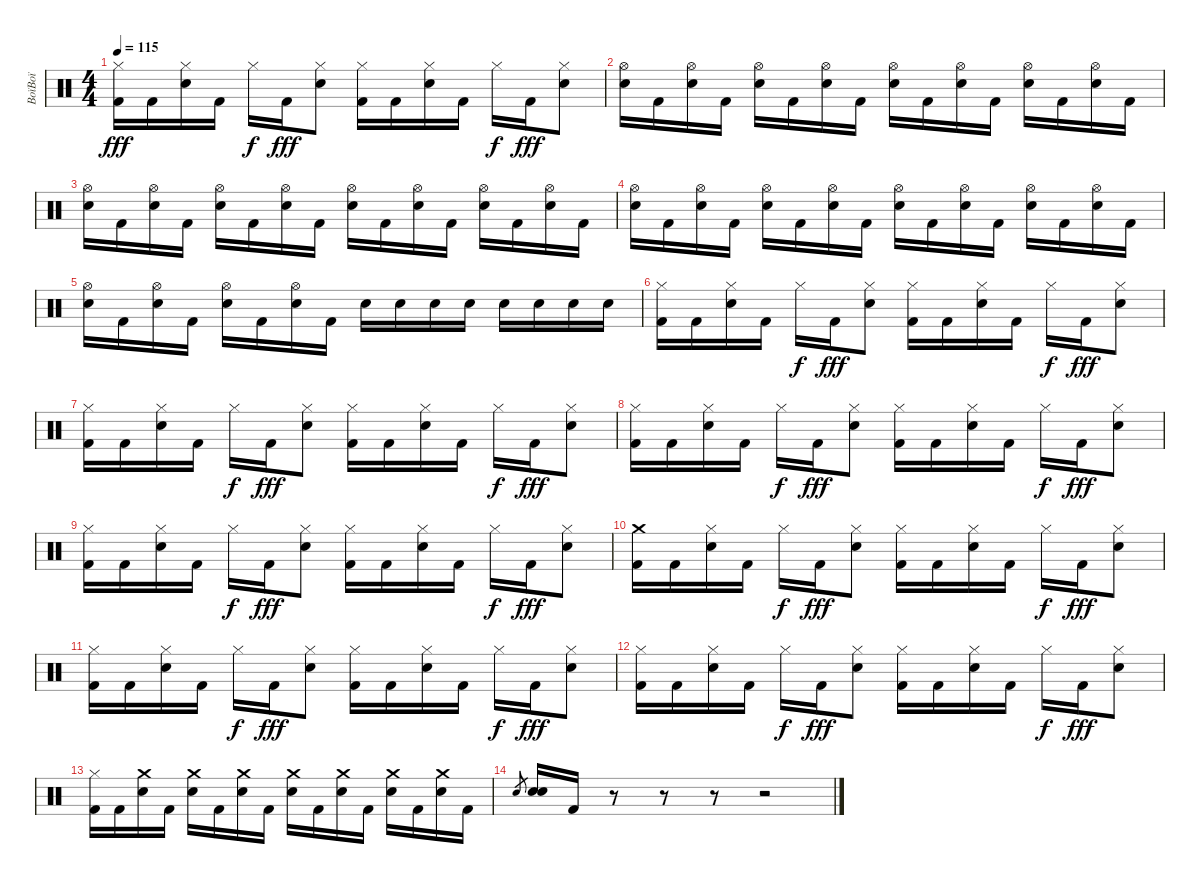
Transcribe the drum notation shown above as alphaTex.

\track ("BoïBoï" "BoïBoï") {instrument percussion}
\staff {score}
\articulation defaults
\ts (4 4)
\tempo 115
\clef neutral
\ks c
("Hi-Hat (closed)" "Kick (hit) 2").16{dy fff} "Kick (hit) 2".16 ("Hi-Hat (closed)" "Electric Snare (hit)").16 "Kick (hit) 2".16 "Hi-Hat (closed)".16{dy f} "Kick (hit) 2".16{dy fff} ("Hi-Hat (closed)" "Electric Snare (hit)").8 ("Hi-Hat (closed)" "Kick (hit) 2").16 "Kick (hit) 2".16 ("Hi-Hat (closed)" "Electric Snare (hit)").16 "Kick (hit) 2".16 "Hi-Hat (closed)".16{dy f} "Kick (hit) 2".16{dy fff} ("Hi-Hat (closed)" "Electric Snare (hit)").8 |
("Hi-Hat (open)" "Electric Snare (hit)").16 "Kick (hit) 2".16 ("Hi-Hat (open)" "Electric Snare (hit)").16 "Kick (hit) 2".16 ("Hi-Hat (open)" "Electric Snare (hit)").16 "Kick (hit) 2".16 ("Hi-Hat (open)" "Electric Snare (hit)").16 "Kick (hit) 2".16 ("Hi-Hat (open)" "Electric Snare (hit)").16 "Kick (hit) 2".16 ("Hi-Hat (open)" "Electric Snare (hit)").16 "Kick (hit) 2".16 ("Hi-Hat (open)" "Electric Snare (hit)").16 "Kick (hit) 2".16 ("Hi-Hat (open)" "Electric Snare (hit)").16 "Kick (hit) 2".16 |
("Hi-Hat (open)" "Electric Snare (hit)").16 "Kick (hit) 2".16 ("Hi-Hat (open)" "Electric Snare (hit)").16 "Kick (hit) 2".16 ("Hi-Hat (open)" "Electric Snare (hit)").16 "Kick (hit) 2".16 ("Hi-Hat (open)" "Electric Snare (hit)").16 "Kick (hit) 2".16 ("Hi-Hat (open)" "Electric Snare (hit)").16 "Kick (hit) 2".16 ("Hi-Hat (open)" "Electric Snare (hit)").16 "Kick (hit) 2".16 ("Hi-Hat (open)" "Electric Snare (hit)").16 "Kick (hit) 2".16 ("Hi-Hat (open)" "Electric Snare (hit)").16 "Kick (hit) 2".16 |
("Hi-Hat (open)" "Electric Snare (hit)").16 "Kick (hit) 2".16 ("Hi-Hat (open)" "Electric Snare (hit)").16 "Kick (hit) 2".16 ("Hi-Hat (open)" "Electric Snare (hit)").16 "Kick (hit) 2".16 ("Hi-Hat (open)" "Electric Snare (hit)").16 "Kick (hit) 2".16 ("Hi-Hat (open)" "Electric Snare (hit)").16 "Kick (hit) 2".16 ("Hi-Hat (open)" "Electric Snare (hit)").16 "Kick (hit) 2".16 ("Hi-Hat (open)" "Electric Snare (hit)").16 "Kick (hit) 2".16 ("Hi-Hat (open)" "Electric Snare (hit)").16 "Kick (hit) 2".16 |
("Hi-Hat (open)" "Electric Snare (hit)").16 "Kick (hit) 2".16 ("Hi-Hat (open)" "Electric Snare (hit)").16 "Kick (hit) 2".16 ("Hi-Hat (open)" "Electric Snare (hit)").16 "Kick (hit) 2".16 ("Hi-Hat (open)" "Electric Snare (hit)").16 "Kick (hit) 2".16 "Electric Snare (hit)".16 "Electric Snare (hit)".16 "Electric Snare (hit)".16 "Electric Snare (hit)".16 "Electric Snare (hit)".16 "Electric Snare (hit)".16 "Electric Snare (hit)".16 "Electric Snare (hit)".16 |
("Hi-Hat (closed)" "Kick (hit) 2").16 "Kick (hit) 2".16 ("Hi-Hat (closed)" "Electric Snare (hit)").16 "Kick (hit) 2".16 "Hi-Hat (closed)".16{dy f} "Kick (hit) 2".16{dy fff} ("Hi-Hat (closed)" "Electric Snare (hit)").8 ("Hi-Hat (closed)" "Kick (hit) 2").16 "Kick (hit) 2".16 ("Hi-Hat (closed)" "Electric Snare (hit)").16 "Kick (hit) 2".16 "Hi-Hat (closed)".16{dy f} "Kick (hit) 2".16{dy fff} ("Hi-Hat (closed)" "Electric Snare (hit)").8 |
("Hi-Hat (closed)" "Kick (hit) 2").16 "Kick (hit) 2".16 ("Hi-Hat (closed)" "Electric Snare (hit)").16 "Kick (hit) 2".16 "Hi-Hat (closed)".16{dy f} "Kick (hit) 2".16{dy fff} ("Hi-Hat (closed)" "Electric Snare (hit)").8 ("Hi-Hat (closed)" "Kick (hit) 2").16 "Kick (hit) 2".16 ("Hi-Hat (closed)" "Electric Snare (hit)").16 "Kick (hit) 2".16 "Hi-Hat (closed)".16{dy f} "Kick (hit) 2".16{dy fff} ("Hi-Hat (closed)" "Electric Snare (hit)").8 |
("Hi-Hat (closed)" "Kick (hit) 2").16 "Kick (hit) 2".16 ("Hi-Hat (closed)" "Electric Snare (hit)").16 "Kick (hit) 2".16 "Hi-Hat (closed)".16{dy f} "Kick (hit) 2".16{dy fff} ("Hi-Hat (closed)" "Electric Snare (hit)").8 ("Hi-Hat (closed)" "Kick (hit) 2").16 "Kick (hit) 2".16 ("Hi-Hat (closed)" "Electric Snare (hit)").16 "Kick (hit) 2".16 "Hi-Hat (closed)".16{dy f} "Kick (hit) 2".16{dy fff} ("Hi-Hat (closed)" "Electric Snare (hit)").8 |
("Hi-Hat (closed)" "Kick (hit) 2").16 "Kick (hit) 2".16 ("Hi-Hat (closed)" "Electric Snare (hit)").16 "Kick (hit) 2".16 "Hi-Hat (closed)".16{dy f} "Kick (hit) 2".16{dy fff} ("Hi-Hat (closed)" "Electric Snare (hit)").8 ("Hi-Hat (closed)" "Kick (hit) 2").16 "Kick (hit) 2".16 ("Hi-Hat (closed)" "Electric Snare (hit)").16 "Kick (hit) 2".16 "Hi-Hat (closed)".16{dy f} "Kick (hit) 2".16{dy fff} ("Hi-Hat (closed)" "Electric Snare (hit)").8 |
("Crash medium (hit)" "Kick (hit) 2").16 "Kick (hit) 2".16 ("Hi-Hat (closed)" "Electric Snare (hit)").16 "Kick (hit) 2".16 "Hi-Hat (closed)".16{dy f} "Kick (hit) 2".16{dy fff} ("Hi-Hat (closed)" "Electric Snare (hit)").8 ("Hi-Hat (closed)" "Kick (hit) 2").16 "Kick (hit) 2".16 ("Hi-Hat (closed)" "Electric Snare (hit)").16 "Kick (hit) 2".16 "Hi-Hat (closed)".16{dy f} "Kick (hit) 2".16{dy fff} ("Hi-Hat (closed)" "Electric Snare (hit)").8 |
("Hi-Hat (closed)" "Kick (hit) 2").16 "Kick (hit) 2".16 ("Hi-Hat (closed)" "Electric Snare (hit)").16 "Kick (hit) 2".16 "Hi-Hat (closed)".16{dy f} "Kick (hit) 2".16{dy fff} ("Hi-Hat (closed)" "Electric Snare (hit)").8 ("Hi-Hat (closed)" "Kick (hit) 2").16 "Kick (hit) 2".16 ("Hi-Hat (closed)" "Electric Snare (hit)").16 "Kick (hit) 2".16 "Hi-Hat (closed)".16{dy f} "Kick (hit) 2".16{dy fff} ("Hi-Hat (closed)" "Electric Snare (hit)").8 |
("Hi-Hat (closed)" "Kick (hit) 2").16 "Kick (hit) 2".16 ("Hi-Hat (closed)" "Electric Snare (hit)").16 "Kick (hit) 2".16 "Hi-Hat (closed)".16{dy f} "Kick (hit) 2".16{dy fff} ("Hi-Hat (closed)" "Electric Snare (hit)").8 ("Hi-Hat (closed)" "Kick (hit) 2").16 "Kick (hit) 2".16 ("Hi-Hat (closed)" "Electric Snare (hit)").16 "Kick (hit) 2".16 "Hi-Hat (closed)".16{dy f} "Kick (hit) 2".16{dy fff} ("Hi-Hat (closed)" "Electric Snare (hit)").8 |
("Hi-Hat (closed)" "Kick (hit) 2").16 "Kick (hit) 2".16 ("Crash medium (hit)" "Electric Snare (hit)").16 "Kick (hit) 2".16 ("Crash medium (hit)" "Electric Snare (hit)").16 "Kick (hit) 2".16 ("Crash medium (hit)" "Electric Snare (hit)").16 "Kick (hit) 2".16 ("Crash medium (hit)" "Electric Snare (hit)").16 "Kick (hit) 2".16 ("Crash medium (hit)" "Electric Snare (hit)").16 "Kick (hit) 2".16 ("Crash medium (hit)" "Electric Snare (hit)").16 "Kick (hit) 2".16 ("Crash medium (hit)" "Electric Snare (hit)").16 "Kick (hit) 2".16 |
"Electric Snare (hit)".8{gr} ("Electric Snare (hit)" "Snare (hit) 2").16 "Kick (hit) 2".16 r.8 r.8 r.8 r.2
